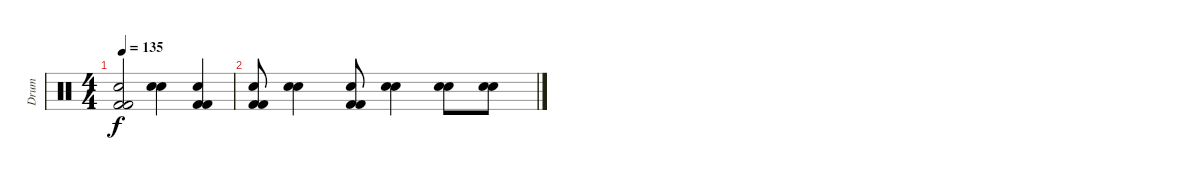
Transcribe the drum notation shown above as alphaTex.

\track ("Drum" "Drum") {instrument percussion}
\staff {score}
\articulation defaults
\ts (4 4)
\tempo 135
\clef neutral
\ks c
("Electric Snare (hit)" "Kick (hit) 2" "Kick (hit) 2").2{dy f volume 2} ("Electric Snare (hit)" "Electric Snare (hit)").4 ("Electric Snare (hit)" "Kick (hit) 2" "Kick (hit) 2").4 |
("Electric Snare (hit)" "Kick (hit) 2" "Kick (hit) 2").8{volume 1} ("Electric Snare (hit)" "Electric Snare (hit)").4 ("Electric Snare (hit)" "Kick (hit) 2" "Kick (hit) 2").8 ("Electric Snare (hit)" "Electric Snare (hit)").4 ("Electric Snare (hit)" "Electric Snare (hit)").8 ("Electric Snare (hit)" "Electric Snare (hit)").8
